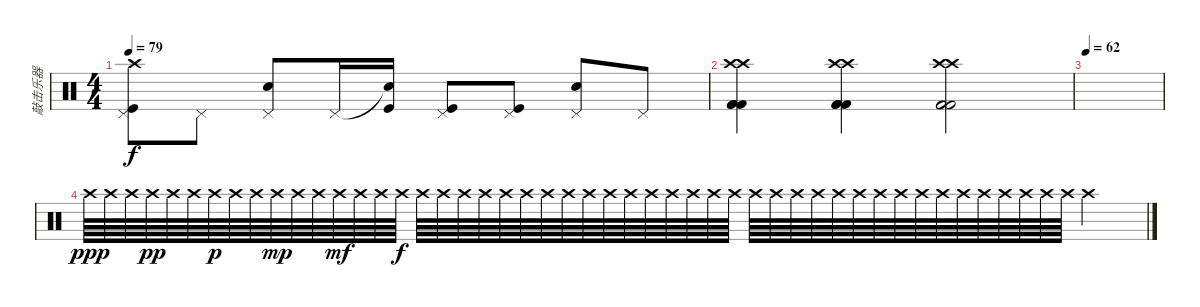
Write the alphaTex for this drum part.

\track ("敲击乐器" "敲击乐器") {instrument percussion}
\staff {score}
\articulation defaults
\ts (4 4)
\tempo 79
\clef neutral
\ks c
("Pedal Hi-Hat (hit)" "Kick (hit)" "Crash high (hit)").8{dy f} "Pedal Hi-Hat (hit)".8 ("Pedal Hi-Hat (hit)" "Electric Snare (hit)").8 "Pedal Hi-Hat (hit)".16 ("Snare (hit)"{t} "Kick (hit)").16 ("Pedal Hi-Hat (hit)" "Kick (hit)").8 ("Pedal Hi-Hat (hit)" "Kick (hit)").8 ("Pedal Hi-Hat (hit)" "Electric Snare (hit)").8 "Pedal Hi-Hat (hit)".8 |
("Kick (hit) 2" "Crash high (hit)" "Crash high (hit)" "Kick (hit) 2" "Kick (hit) 2").4 ("Kick (hit) 2" "Crash high (hit)" "Crash high (hit)" "Kick (hit) 2" "Kick (hit) 2").4 ("Kick (hit) 2" "Crash high (hit)" "Crash high (hit)" "Kick (hit) 2" "Kick (hit) 2").2 |
\tempo 62
|
"Crash high (hit)".64{dy ppp} "Crash high (hit)".64 "Crash high (hit)".64 "Crash high (hit)".64{dy pp} "Crash high (hit)".64 "Crash high (hit)".64 "Crash high (hit)".64{dy p} "Crash high (hit)".64 "Crash high (hit)".64 "Crash high (hit)".64{dy mp} "Crash high (hit)".64 "Crash high (hit)".64 "Crash high (hit)".64{dy mf} "Crash high (hit)".64 "Crash high (hit)".64 "Crash high (hit)".64{dy f} "Crash high (hit)".64 "Crash high (hit)".64 "Crash high (hit)".64 "Crash high (hit)".64 "Crash high (hit)".64 "Crash high (hit)".64 "Crash high (hit)".64 "Crash high (hit)".64 "Crash high (hit)".64 "Crash high (hit)".64 "Crash high (hit)".64 "Crash high (hit)".64 "Crash high (hit)".64 "Crash high (hit)".64 "Crash high (hit)".64 "Crash high (hit)".64 "Crash high (hit)".64 "Crash high (hit)".64 "Crash high (hit)".64 "Crash high (hit)".64 "Crash high (hit)".64 "Crash high (hit)".64 "Crash high (hit)".64 "Crash high (hit)".64 "Crash high (hit)".64 "Crash high (hit)".64 "Crash high (hit)".64 "Crash high (hit)".64 "Crash high (hit)".64 "Crash high (hit)".64 "Crash high (hit)".64 "Crash high (hit)".64 "Crash high (hit)".4
